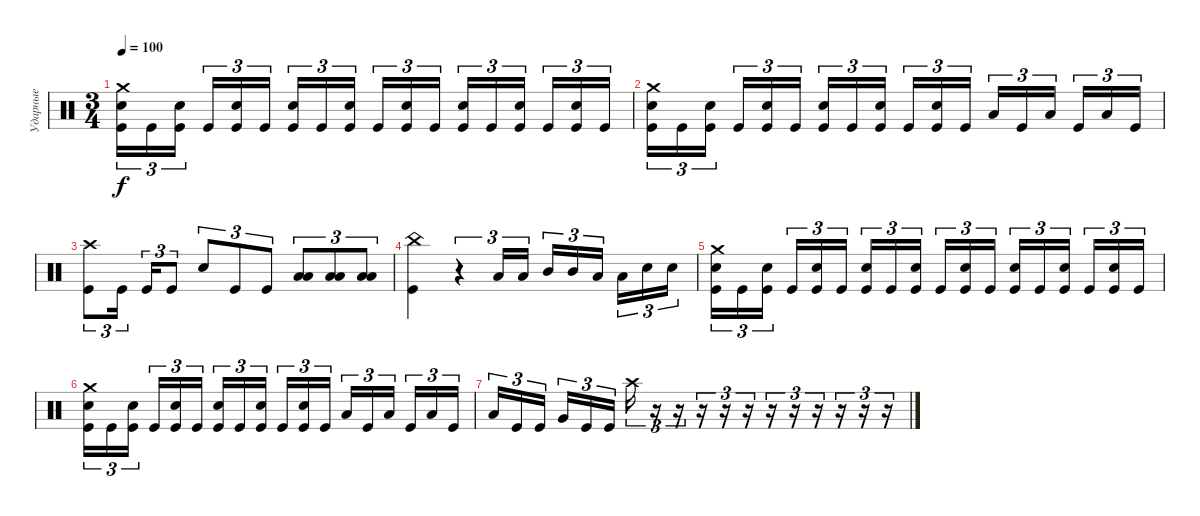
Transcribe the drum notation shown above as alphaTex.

\track ("Ударные" "Ударные") {instrument percussion}
\staff {score}
\articulation defaults
\ts (3 4)
\tempo 100
\clef neutral
\ks c
("Crash medium (hit)" "Electric Snare (hit)" "Kick (hit)").16{tu (3 2) dy f} "Kick (hit)".16{tu (3 2)} ("Electric Snare (hit)" "Kick (hit)").16{tu (3 2) beam splitsecondary} "Kick (hit)".16{tu (3 2)} ("Electric Snare (hit)" "Kick (hit)").16{tu (3 2)} "Kick (hit)".16{tu (3 2)} ("Electric Snare (hit)" "Kick (hit)").16{tu (3 2)} "Kick (hit)".16{tu (3 2)} ("Electric Snare (hit)" "Kick (hit)").16{tu (3 2) beam splitsecondary} "Kick (hit)".16{tu (3 2)} ("Electric Snare (hit)" "Kick (hit)").16{tu (3 2)} "Kick (hit)".16{tu (3 2)} ("Electric Snare (hit)" "Kick (hit)").16{tu (3 2)} "Kick (hit)".16{tu (3 2)} ("Electric Snare (hit)" "Kick (hit)").16{tu (3 2) beam splitsecondary} "Kick (hit)".16{tu (3 2)} ("Electric Snare (hit)" "Kick (hit)").16{tu (3 2)} "Kick (hit)".16{tu (3 2)} |
("Crash medium (hit)" "Electric Snare (hit)" "Kick (hit)").16{tu (3 2)} "Kick (hit)".16{tu (3 2)} ("Electric Snare (hit)" "Kick (hit)").16{tu (3 2) beam splitsecondary} "Kick (hit)".16{tu (3 2)} ("Electric Snare (hit)" "Kick (hit)").16{tu (3 2)} "Kick (hit)".16{tu (3 2)} ("Electric Snare (hit)" "Kick (hit)").16{tu (3 2)} "Kick (hit)".16{tu (3 2)} ("Electric Snare (hit)" "Kick (hit)").16{tu (3 2) beam splitsecondary} "Kick (hit)".16{tu (3 2)} ("Electric Snare (hit)" "Kick (hit)").16{tu (3 2)} "Kick (hit)".16{tu (3 2)} "Low Tom (hit)".16{tu (3 2)} "Kick (hit)".16{tu (3 2)} "Low Floor Tom (hit)".16{tu (3 2) beam splitsecondary} "Kick (hit)".16{tu (3 2)} "Low Floor Tom (hit)".16{tu (3 2)} "Kick (hit)".16{tu (3 2)} |
("Crash high (hit)" "Kick (hit)").8{tu (3 2)} "Kick (hit)".16{tu (3 2) beam splitsecondary} "Kick (hit)".16{tu (3 2)} "Kick (hit)".8{tu (3 2)} "Electric Snare (hit)".8{tu (3 2)} "Kick (hit)".8{tu (3 2)} "Kick (hit)".8{tu (3 2)} ("Low Floor Tom (hit)" "Low Tom (hit)").8{tu (3 2)} ("Low Floor Tom (hit)" "Low Tom (hit)").8{tu (3 2)} ("Low Floor Tom (hit)" "Low Tom (hit)").8{tu (3 2)} |
("China (hit)" "Kick (hit)").4 r.4{tu (3 2)} "Low Tom (hit)".16{tu (3 2)} "Low Tom (hit)".16{tu (3 2)} "Mid Tom (hit)".16{tu (3 2)} "Mid Tom (hit)".16{tu (3 2)} "Low Tom (hit)".16{tu (3 2) beam splitsecondary} "Low Tom (hit)".16{tu (3 2)} "Electric Snare (hit)".16{tu (3 2)} "Electric Snare (hit)".16{tu (3 2)} |
("Crash medium (hit)" "Electric Snare (hit)" "Kick (hit)").16{tu (3 2)} "Kick (hit)".16{tu (3 2)} ("Electric Snare (hit)" "Kick (hit)").16{tu (3 2) beam splitsecondary} "Kick (hit)".16{tu (3 2)} ("Electric Snare (hit)" "Kick (hit)").16{tu (3 2)} "Kick (hit)".16{tu (3 2)} ("Electric Snare (hit)" "Kick (hit)").16{tu (3 2)} "Kick (hit)".16{tu (3 2)} ("Electric Snare (hit)" "Kick (hit)").16{tu (3 2) beam splitsecondary} "Kick (hit)".16{tu (3 2)} ("Electric Snare (hit)" "Kick (hit)").16{tu (3 2)} "Kick (hit)".16{tu (3 2)} ("Electric Snare (hit)" "Kick (hit)").16{tu (3 2)} "Kick (hit)".16{tu (3 2)} ("Electric Snare (hit)" "Kick (hit)").16{tu (3 2) beam splitsecondary} "Kick (hit)".16{tu (3 2)} ("Electric Snare (hit)" "Kick (hit)").16{tu (3 2)} "Kick (hit)".16{tu (3 2)} |
("Crash medium (hit)" "Electric Snare (hit)" "Kick (hit)").16{tu (3 2)} "Kick (hit)".16{tu (3 2)} ("Electric Snare (hit)" "Kick (hit)").16{tu (3 2) beam splitsecondary} "Kick (hit)".16{tu (3 2)} ("Electric Snare (hit)" "Kick (hit)").16{tu (3 2)} "Kick (hit)".16{tu (3 2)} ("Electric Snare (hit)" "Kick (hit)").16{tu (3 2)} "Kick (hit)".16{tu (3 2)} ("Electric Snare (hit)" "Kick (hit)").16{tu (3 2) beam splitsecondary} "Kick (hit)".16{tu (3 2)} ("Electric Snare (hit)" "Kick (hit)").16{tu (3 2)} "Kick (hit)".16{tu (3 2)} "Low Tom (hit)".16{tu (3 2)} "Kick (hit)".16{tu (3 2)} "Low Floor Tom (hit)".16{tu (3 2) beam splitsecondary} "Kick (hit)".16{tu (3 2)} "Low Floor Tom (hit)".16{tu (3 2)} "Kick (hit)".16{tu (3 2)} |
"Low Tom (hit)".16{tu (3 2)} "Kick (hit)".16{tu (3 2)} "Kick (hit)".16{tu (3 2) beam splitsecondary} "Very Low Tom (hit)".16{tu (3 2)} "Kick (hit)".16{tu (3 2)} "Kick (hit)".16{tu (3 2)} "Crash high (hit)".16{tu (3 2)} r.16{tu (3 2)} r.16{tu (3 2)} r.16{tu (3 2)} r.16{tu (3 2)} r.16{tu (3 2)} r.16{tu (3 2)} r.16{tu (3 2)} r.16{tu (3 2)} r.16{tu (3 2)} r.16{tu (3 2)} r.16{tu (3 2)}
